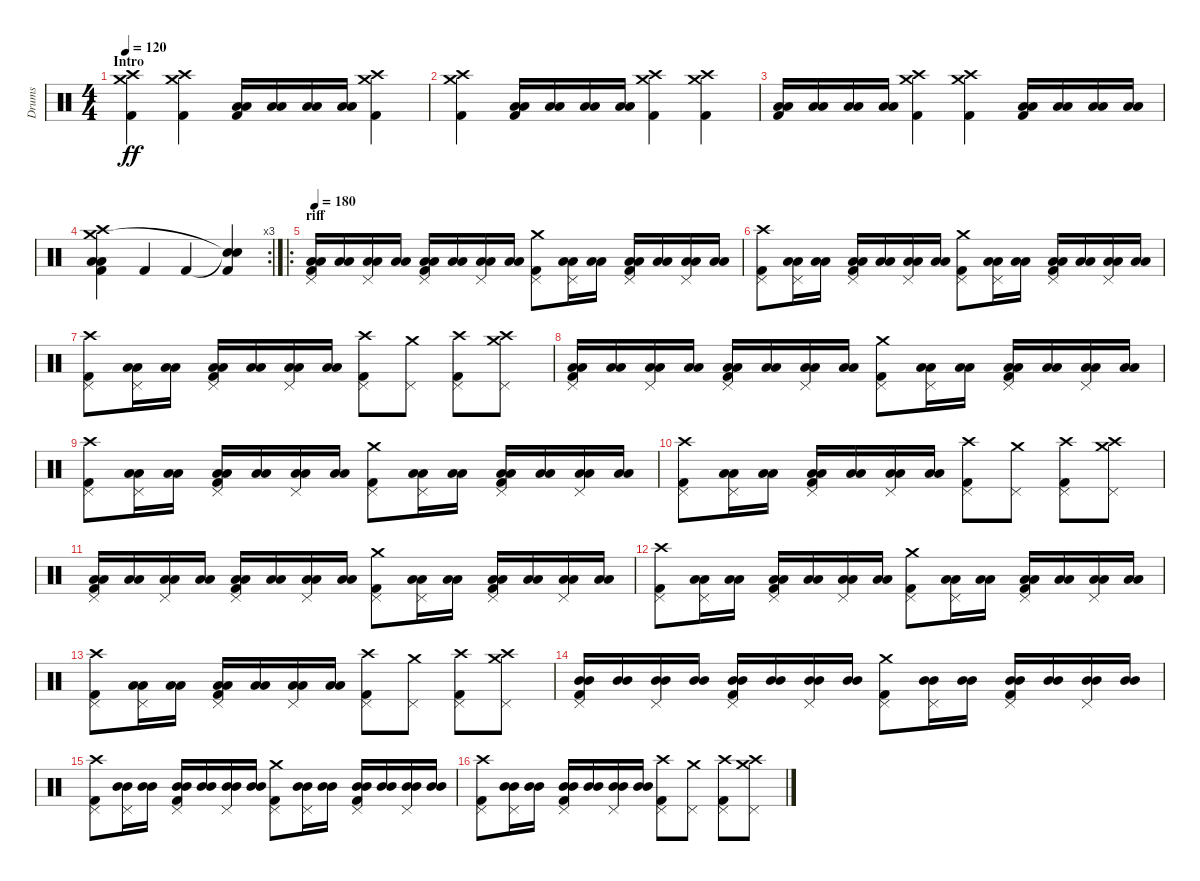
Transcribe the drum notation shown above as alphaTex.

\track ("Drums" "Drums") {instrument percussion}
\staff {score}
\articulation defaults
\ts (4 4)
\section ("" "Intro")
\tempo 120
\clef neutral
\ks c
("Crash high (hit)" "Crash medium (hit)" "Kick (hit) 2").4{dy ff} ("Crash high (hit)" "Crash medium (hit)" "Kick (hit) 2").4 ("Low Tom (hit)" "Kick (hit) 2" "Low Tom (hit)").16 ("Low Tom (hit)" "Low Tom (hit)").16 ("Low Tom (hit)" "Low Tom (hit)").16 ("Low Tom (hit)" "Low Tom (hit)").16 ("Crash high (hit)" "Crash medium (hit)" "Kick (hit) 2").4 |
("Crash high (hit)" "Crash medium (hit)" "Kick (hit) 2").4 ("Low Tom (hit)" "Kick (hit) 2" "Low Tom (hit)").16 ("Low Tom (hit)" "Low Tom (hit)").16 ("Low Tom (hit)" "Low Tom (hit)").16 ("Low Tom (hit)" "Low Tom (hit)").16 ("Crash high (hit)" "Crash medium (hit)" "Kick (hit) 2").4 ("Crash high (hit)" "Crash medium (hit)" "Kick (hit) 2").4 |
("Low Tom (hit)" "Kick (hit) 2" "Low Tom (hit)").16 ("Low Tom (hit)" "Low Tom (hit)").16 ("Low Tom (hit)" "Low Tom (hit)").16 ("Low Tom (hit)" "Low Tom (hit)").16 ("Crash high (hit)" "Crash medium (hit)" "Kick (hit) 2").4 ("Crash high (hit)" "Crash medium (hit)" "Kick (hit) 2").4 ("Low Tom (hit)" "Kick (hit) 2" "Low Tom (hit)").16 ("Low Tom (hit)" "Low Tom (hit)").16 ("Low Tom (hit)" "Low Tom (hit)").16 ("Low Tom (hit)" "Low Tom (hit)").16 |
\rc 3
("Crash high (hit)" "Crash medium (hit)" "Low Tom (hit)" "Kick (hit) 2" "Low Tom (hit)").4 "Kick (hit) 2".4 "Kick (hit) 2".4 ("Snare (hit)"{t} "Snare (hit)"{t} "Kick (hit) 2").4 |
\ro
\section ("" "riff")
\tempo 180
("Pedal Hi-Hat (hit)" "Low Tom (hit)" "Kick (hit) 2" "Low Tom (hit)").16 ("Low Tom (hit)" "Low Tom (hit)").16 ("Pedal Hi-Hat (hit)" "Low Tom (hit)" "Low Tom (hit)").16 ("Low Tom (hit)" "Low Tom (hit)").16 ("Pedal Hi-Hat (hit)" "Low Tom (hit)" "Kick (hit) 2" "Low Tom (hit)").16 ("Low Tom (hit)" "Low Tom (hit)").16 ("Pedal Hi-Hat (hit)" "Low Tom (hit)" "Low Tom (hit)").16 ("Low Tom (hit)" "Low Tom (hit)").16 ("Pedal Hi-Hat (hit)" "Crash medium (hit)" "Kick (hit) 2").8 ("Pedal Hi-Hat (hit)" "Low Tom (hit)" "Low Tom (hit)").16 ("Low Tom (hit)" "Low Tom (hit)").16 ("Pedal Hi-Hat (hit)" "Low Tom (hit)" "Kick (hit) 2" "Low Tom (hit)").16 ("Low Tom (hit)" "Low Tom (hit)").16 ("Pedal Hi-Hat (hit)" "Low Tom (hit)" "Low Tom (hit)").16 ("Low Tom (hit)" "Low Tom (hit)").16 |
("Crash high (hit)" "Pedal Hi-Hat (hit)" "Kick (hit) 2").8 ("Pedal Hi-Hat (hit)" "Low Tom (hit)" "Low Tom (hit)").16 ("Low Tom (hit)" "Low Tom (hit)").16 ("Pedal Hi-Hat (hit)" "Low Tom (hit)" "Kick (hit) 2" "Low Tom (hit)").16 ("Low Tom (hit)" "Low Tom (hit)").16 ("Pedal Hi-Hat (hit)" "Low Tom (hit)" "Low Tom (hit)").16 ("Low Tom (hit)" "Low Tom (hit)").16 ("Pedal Hi-Hat (hit)" "Crash medium (hit)" "Kick (hit) 2").8 ("Pedal Hi-Hat (hit)" "Low Tom (hit)" "Low Tom (hit)").16 ("Low Tom (hit)" "Low Tom (hit)").16 ("Pedal Hi-Hat (hit)" "Low Tom (hit)" "Kick (hit) 2" "Low Tom (hit)").16 ("Low Tom (hit)" "Low Tom (hit)").16 ("Pedal Hi-Hat (hit)" "Low Tom (hit)" "Low Tom (hit)").16 ("Low Tom (hit)" "Low Tom (hit)").16 |
("Crash high (hit)" "Pedal Hi-Hat (hit)" "Kick (hit) 2").8 ("Pedal Hi-Hat (hit)" "Low Tom (hit)" "Low Tom (hit)").16 ("Low Tom (hit)" "Low Tom (hit)").16 ("Pedal Hi-Hat (hit)" "Low Tom (hit)" "Kick (hit) 2" "Low Tom (hit)").16 ("Low Tom (hit)" "Low Tom (hit)").16 ("Pedal Hi-Hat (hit)" "Low Tom (hit)" "Low Tom (hit)").16 ("Low Tom (hit)" "Low Tom (hit)").16 ("Crash high (hit)" "Pedal Hi-Hat (hit)" "Kick (hit) 2").8 ("Pedal Hi-Hat (hit)" "Crash medium (hit)").8 ("Crash high (hit)" "Pedal Hi-Hat (hit)" "Kick (hit) 2").8 ("Crash high (hit)" "Pedal Hi-Hat (hit)" "Crash medium (hit)").8 |
("Pedal Hi-Hat (hit)" "Low Tom (hit)" "Kick (hit) 2" "Low Tom (hit)").16 ("Low Tom (hit)" "Low Tom (hit)").16 ("Pedal Hi-Hat (hit)" "Low Tom (hit)" "Low Tom (hit)").16 ("Low Tom (hit)" "Low Tom (hit)").16 ("Pedal Hi-Hat (hit)" "Low Tom (hit)" "Kick (hit) 2" "Low Tom (hit)").16 ("Low Tom (hit)" "Low Tom (hit)").16 ("Pedal Hi-Hat (hit)" "Low Tom (hit)" "Low Tom (hit)").16 ("Low Tom (hit)" "Low Tom (hit)").16 ("Pedal Hi-Hat (hit)" "Crash medium (hit)" "Kick (hit) 2").8 ("Pedal Hi-Hat (hit)" "Low Tom (hit)" "Low Tom (hit)").16 ("Low Tom (hit)" "Low Tom (hit)").16 ("Pedal Hi-Hat (hit)" "Low Tom (hit)" "Kick (hit) 2" "Low Tom (hit)").16 ("Low Tom (hit)" "Low Tom (hit)").16 ("Pedal Hi-Hat (hit)" "Low Tom (hit)" "Low Tom (hit)").16 ("Low Tom (hit)" "Low Tom (hit)").16 |
("Crash high (hit)" "Pedal Hi-Hat (hit)" "Kick (hit) 2").8 ("Pedal Hi-Hat (hit)" "Low Tom (hit)" "Low Tom (hit)").16 ("Low Tom (hit)" "Low Tom (hit)").16 ("Pedal Hi-Hat (hit)" "Low Tom (hit)" "Kick (hit) 2" "Low Tom (hit)").16 ("Low Tom (hit)" "Low Tom (hit)").16 ("Pedal Hi-Hat (hit)" "Low Tom (hit)" "Low Tom (hit)").16 ("Low Tom (hit)" "Low Tom (hit)").16 ("Pedal Hi-Hat (hit)" "Crash medium (hit)" "Kick (hit) 2").8 ("Pedal Hi-Hat (hit)" "Low Tom (hit)" "Low Tom (hit)").16 ("Low Tom (hit)" "Low Tom (hit)").16 ("Pedal Hi-Hat (hit)" "Low Tom (hit)" "Kick (hit) 2" "Low Tom (hit)").16 ("Low Tom (hit)" "Low Tom (hit)").16 ("Pedal Hi-Hat (hit)" "Low Tom (hit)" "Low Tom (hit)").16 ("Low Tom (hit)" "Low Tom (hit)").16 |
("Crash high (hit)" "Pedal Hi-Hat (hit)" "Kick (hit) 2").8 ("Pedal Hi-Hat (hit)" "Low Tom (hit)" "Low Tom (hit)").16 ("Low Tom (hit)" "Low Tom (hit)").16 ("Pedal Hi-Hat (hit)" "Low Tom (hit)" "Kick (hit) 2" "Low Tom (hit)").16 ("Low Tom (hit)" "Low Tom (hit)").16 ("Pedal Hi-Hat (hit)" "Low Tom (hit)" "Low Tom (hit)").16 ("Low Tom (hit)" "Low Tom (hit)").16 ("Crash high (hit)" "Pedal Hi-Hat (hit)" "Kick (hit) 2").8 ("Pedal Hi-Hat (hit)" "Crash medium (hit)").8 ("Crash high (hit)" "Pedal Hi-Hat (hit)" "Kick (hit) 2").8 ("Crash high (hit)" "Pedal Hi-Hat (hit)" "Crash medium (hit)").8 |
("Pedal Hi-Hat (hit)" "Low Tom (hit)" "Kick (hit) 2" "Low Tom (hit)").16 ("Low Tom (hit)" "Low Tom (hit)").16 ("Pedal Hi-Hat (hit)" "Low Tom (hit)" "Low Tom (hit)").16 ("Low Tom (hit)" "Low Tom (hit)").16 ("Pedal Hi-Hat (hit)" "Low Tom (hit)" "Kick (hit) 2" "Low Tom (hit)").16 ("Low Tom (hit)" "Low Tom (hit)").16 ("Pedal Hi-Hat (hit)" "Low Tom (hit)" "Low Tom (hit)").16 ("Low Tom (hit)" "Low Tom (hit)").16 ("Pedal Hi-Hat (hit)" "Crash medium (hit)" "Kick (hit) 2").8 ("Pedal Hi-Hat (hit)" "Low Tom (hit)" "Low Tom (hit)").16 ("Low Tom (hit)" "Low Tom (hit)").16 ("Pedal Hi-Hat (hit)" "Low Tom (hit)" "Kick (hit) 2" "Low Tom (hit)").16 ("Low Tom (hit)" "Low Tom (hit)").16 ("Pedal Hi-Hat (hit)" "Low Tom (hit)" "Low Tom (hit)").16 ("Low Tom (hit)" "Low Tom (hit)").16 |
("Crash high (hit)" "Pedal Hi-Hat (hit)" "Kick (hit) 2").8 ("Pedal Hi-Hat (hit)" "Low Tom (hit)" "Low Tom (hit)").16 ("Low Tom (hit)" "Low Tom (hit)").16 ("Pedal Hi-Hat (hit)" "Low Tom (hit)" "Kick (hit) 2" "Low Tom (hit)").16 ("Low Tom (hit)" "Low Tom (hit)").16 ("Pedal Hi-Hat (hit)" "Low Tom (hit)" "Low Tom (hit)").16 ("Low Tom (hit)" "Low Tom (hit)").16 ("Pedal Hi-Hat (hit)" "Crash medium (hit)" "Kick (hit) 2").8 ("Pedal Hi-Hat (hit)" "Low Tom (hit)" "Low Tom (hit)").16 ("Low Tom (hit)" "Low Tom (hit)").16 ("Pedal Hi-Hat (hit)" "Low Tom (hit)" "Kick (hit) 2" "Low Tom (hit)").16 ("Low Tom (hit)" "Low Tom (hit)").16 ("Pedal Hi-Hat (hit)" "Low Tom (hit)" "Low Tom (hit)").16 ("Low Tom (hit)" "Low Tom (hit)").16 |
("Crash high (hit)" "Pedal Hi-Hat (hit)" "Kick (hit) 2").8 ("Pedal Hi-Hat (hit)" "Low Tom (hit)" "Low Tom (hit)").16 ("Low Tom (hit)" "Low Tom (hit)").16 ("Pedal Hi-Hat (hit)" "Low Tom (hit)" "Kick (hit) 2" "Low Tom (hit)").16 ("Low Tom (hit)" "Low Tom (hit)").16 ("Pedal Hi-Hat (hit)" "Low Tom (hit)" "Low Tom (hit)").16 ("Low Tom (hit)" "Low Tom (hit)").16 ("Crash high (hit)" "Pedal Hi-Hat (hit)" "Kick (hit) 2").8 ("Pedal Hi-Hat (hit)" "Crash medium (hit)").8 ("Crash high (hit)" "Pedal Hi-Hat (hit)" "Kick (hit) 2").8 ("Crash high (hit)" "Pedal Hi-Hat (hit)" "Crash medium (hit)").8 |
("Pedal Hi-Hat (hit)" "Mid Tom (hit)" "Kick (hit) 2" "Mid Tom (hit)").16 ("Mid Tom (hit)" "Mid Tom (hit)").16 ("Pedal Hi-Hat (hit)" "Mid Tom (hit)" "Mid Tom (hit)").16 ("Mid Tom (hit)" "Mid Tom (hit)").16 ("Pedal Hi-Hat (hit)" "Mid Tom (hit)" "Kick (hit) 2" "Mid Tom (hit)").16 ("Mid Tom (hit)" "Mid Tom (hit)").16 ("Pedal Hi-Hat (hit)" "Mid Tom (hit)" "Mid Tom (hit)").16 ("Mid Tom (hit)" "Mid Tom (hit)").16 ("Pedal Hi-Hat (hit)" "Crash medium (hit)" "Kick (hit) 2").8 ("Pedal Hi-Hat (hit)" "Mid Tom (hit)" "Mid Tom (hit)").16 ("Mid Tom (hit)" "Mid Tom (hit)").16 ("Pedal Hi-Hat (hit)" "Mid Tom (hit)" "Kick (hit) 2" "Mid Tom (hit)").16 ("Mid Tom (hit)" "Mid Tom (hit)").16 ("Pedal Hi-Hat (hit)" "Mid Tom (hit)" "Mid Tom (hit)").16 ("Mid Tom (hit)" "Mid Tom (hit)").16 |
("Crash high (hit)" "Pedal Hi-Hat (hit)" "Kick (hit) 2").8 ("Pedal Hi-Hat (hit)" "Mid Tom (hit)" "Mid Tom (hit)").16 ("Mid Tom (hit)" "Mid Tom (hit)").16 ("Pedal Hi-Hat (hit)" "Mid Tom (hit)" "Kick (hit) 2" "Mid Tom (hit)").16 ("Mid Tom (hit)" "Mid Tom (hit)").16 ("Pedal Hi-Hat (hit)" "Mid Tom (hit)" "Mid Tom (hit)").16 ("Mid Tom (hit)" "Mid Tom (hit)").16 ("Pedal Hi-Hat (hit)" "Crash medium (hit)" "Kick (hit) 2").8 ("Pedal Hi-Hat (hit)" "Mid Tom (hit)" "Mid Tom (hit)").16 ("Mid Tom (hit)" "Mid Tom (hit)").16 ("Pedal Hi-Hat (hit)" "Mid Tom (hit)" "Kick (hit) 2" "Mid Tom (hit)").16 ("Mid Tom (hit)" "Mid Tom (hit)").16 ("Pedal Hi-Hat (hit)" "Mid Tom (hit)" "Mid Tom (hit)").16 ("Mid Tom (hit)" "Mid Tom (hit)").16 |
("Crash high (hit)" "Pedal Hi-Hat (hit)" "Kick (hit) 2").8 ("Pedal Hi-Hat (hit)" "Mid Tom (hit)" "Mid Tom (hit)").16 ("Mid Tom (hit)" "Mid Tom (hit)").16 ("Pedal Hi-Hat (hit)" "Mid Tom (hit)" "Kick (hit) 2" "Mid Tom (hit)").16 ("Mid Tom (hit)" "Mid Tom (hit)").16 ("Pedal Hi-Hat (hit)" "Mid Tom (hit)" "Mid Tom (hit)").16 ("Mid Tom (hit)" "Mid Tom (hit)").16 ("Crash high (hit)" "Pedal Hi-Hat (hit)" "Kick (hit) 2").8 ("Pedal Hi-Hat (hit)" "Crash medium (hit)").8 ("Crash high (hit)" "Pedal Hi-Hat (hit)" "Kick (hit) 2").8 ("Crash high (hit)" "Pedal Hi-Hat (hit)" "Crash medium (hit)").8
